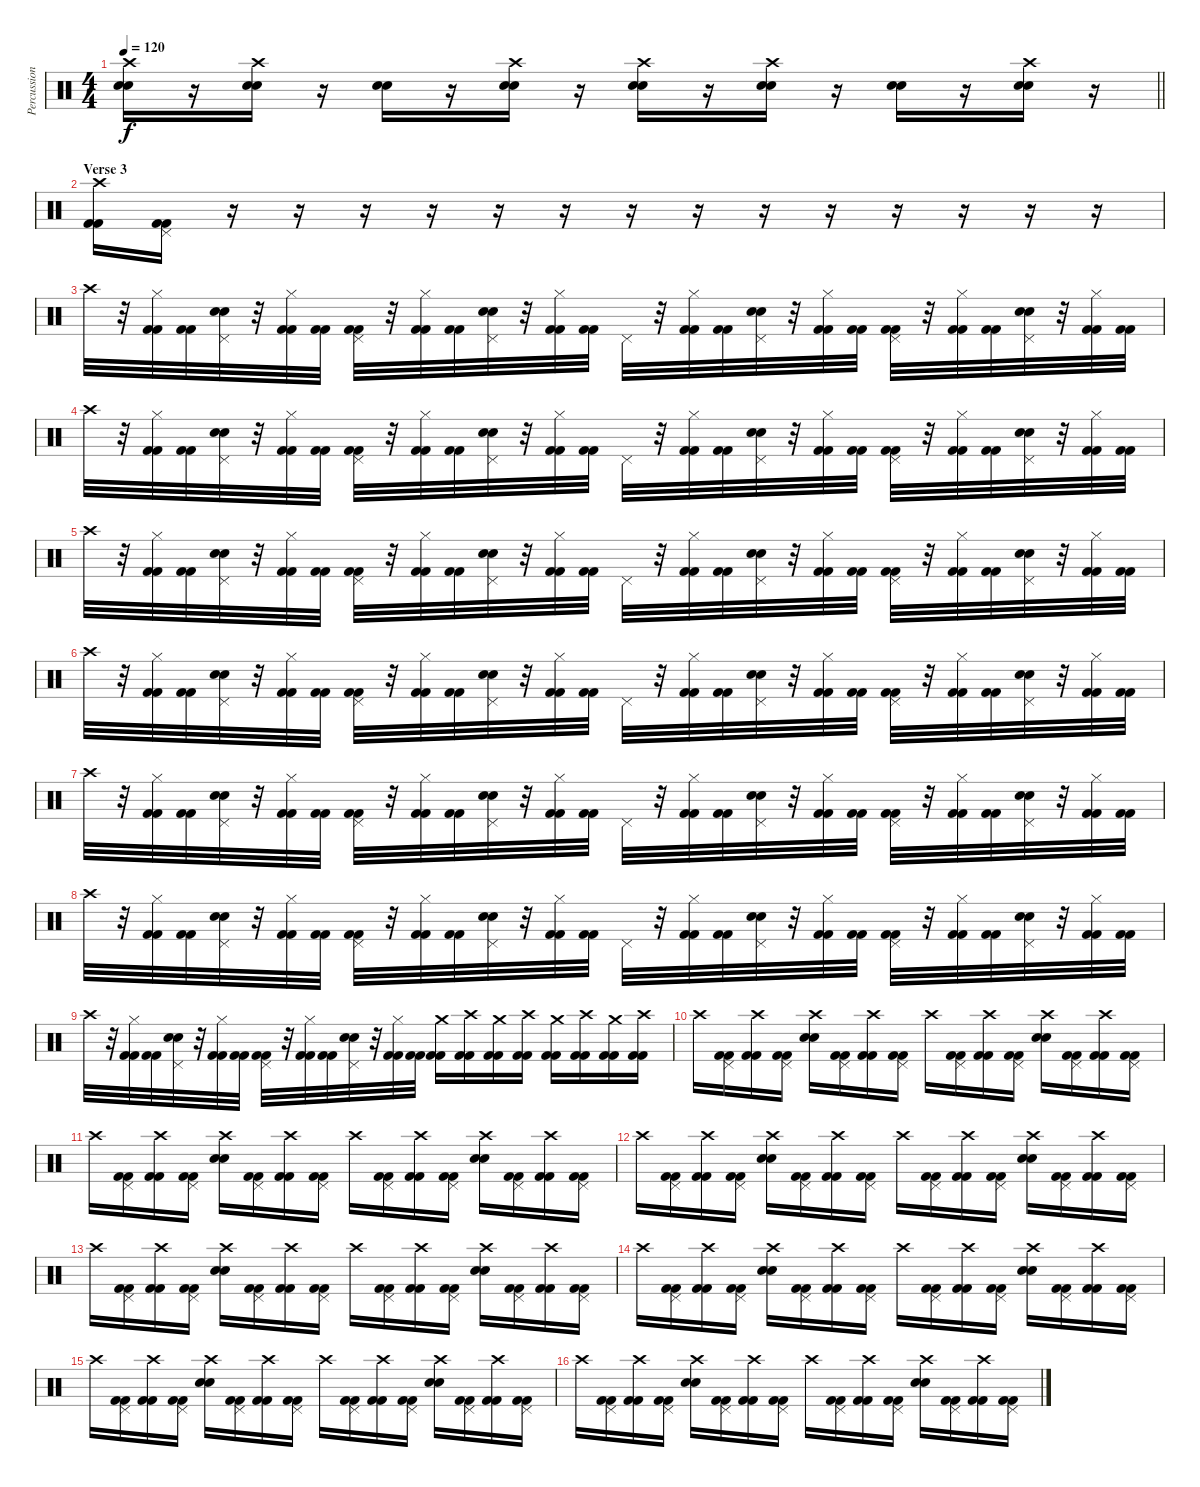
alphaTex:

\track ("Percussions" "Percussion") {instrument percussion}
\staff {score}
\articulation defaults
\ts (4 4)
\tempo 120
\clef neutral
\barLineRight lightlight
\ks c
("Crash high (hit)" "Snare (hit) 2" "Electric Snare (hit)").16{dy f} r.16 ("Crash high (hit)" "Snare (hit) 2" "Electric Snare (hit)").16 r.16 ("Snare (hit) 2" "Electric Snare (hit)").16 r.16 ("Crash high (hit)" "Snare (hit) 2" "Electric Snare (hit)").16 r.16 ("Crash high (hit)" "Snare (hit) 2" "Electric Snare (hit)").16 r.16 ("Crash high (hit)" "Snare (hit) 2" "Electric Snare (hit)").16 r.16 ("Snare (hit) 2" "Electric Snare (hit)").16 r.16 ("Crash high (hit)" "Snare (hit) 2" "Electric Snare (hit)").16 r.16 |
\section ("" "Verse 3")
("Crash high (hit)" "Kick (hit) 2" "Kick (hit) 2").16 ("Pedal Hi-Hat (hit)" "Kick (hit) 2" "Kick (hit) 2").16 r.16 r.16 r.16 r.16 r.16 r.16 r.16 r.16 r.16 r.16 r.16 r.16 r.16 r.16 |
"Crash high (hit)".32 r.32 ("Hi-Hat (closed)" "Kick (hit) 2" "Kick (hit) 2").32 ("Kick (hit) 2" "Kick (hit) 2").32 ("Pedal Hi-Hat (hit)" "Snare (hit) 2" "Electric Snare (hit)").32 r.32 ("Hi-Hat (closed)" "Kick (hit) 2" "Kick (hit) 2").32 ("Kick (hit) 2" "Kick (hit) 2").32 ("Pedal Hi-Hat (hit)" "Kick (hit) 2" "Kick (hit) 2").32 r.32 ("Hi-Hat (closed)" "Kick (hit) 2" "Kick (hit) 2").32 ("Kick (hit) 2" "Kick (hit) 2").32 ("Pedal Hi-Hat (hit)" "Snare (hit) 2" "Electric Snare (hit)").32 r.32 ("Hi-Hat (closed)" "Kick (hit) 2" "Kick (hit) 2").32 ("Kick (hit) 2" "Kick (hit) 2").32 "Pedal Hi-Hat (hit)".32 r.32 ("Hi-Hat (closed)" "Kick (hit) 2" "Kick (hit) 2").32 ("Kick (hit) 2" "Kick (hit) 2").32 ("Pedal Hi-Hat (hit)" "Snare (hit) 2" "Electric Snare (hit)").32 r.32 ("Hi-Hat (closed)" "Kick (hit) 2" "Kick (hit) 2").32 ("Kick (hit) 2" "Kick (hit) 2").32 ("Pedal Hi-Hat (hit)" "Kick (hit) 2" "Kick (hit) 2").32 r.32 ("Hi-Hat (closed)" "Kick (hit) 2" "Kick (hit) 2").32 ("Kick (hit) 2" "Kick (hit) 2").32 ("Pedal Hi-Hat (hit)" "Snare (hit) 2" "Electric Snare (hit)").32 r.32 ("Hi-Hat (closed)" "Kick (hit) 2" "Kick (hit) 2").32 ("Kick (hit) 2" "Kick (hit) 2").32 |
"Crash high (hit)".32 r.32 ("Hi-Hat (closed)" "Kick (hit) 2" "Kick (hit) 2").32 ("Kick (hit) 2" "Kick (hit) 2").32 ("Pedal Hi-Hat (hit)" "Snare (hit) 2" "Electric Snare (hit)").32 r.32 ("Hi-Hat (closed)" "Kick (hit) 2" "Kick (hit) 2").32 ("Kick (hit) 2" "Kick (hit) 2").32 ("Pedal Hi-Hat (hit)" "Kick (hit) 2" "Kick (hit) 2").32 r.32 ("Hi-Hat (closed)" "Kick (hit) 2" "Kick (hit) 2").32 ("Kick (hit) 2" "Kick (hit) 2").32 ("Pedal Hi-Hat (hit)" "Snare (hit) 2" "Electric Snare (hit)").32 r.32 ("Hi-Hat (closed)" "Kick (hit) 2" "Kick (hit) 2").32 ("Kick (hit) 2" "Kick (hit) 2").32 "Pedal Hi-Hat (hit)".32 r.32 ("Hi-Hat (closed)" "Kick (hit) 2" "Kick (hit) 2").32 ("Kick (hit) 2" "Kick (hit) 2").32 ("Pedal Hi-Hat (hit)" "Snare (hit) 2" "Electric Snare (hit)").32 r.32 ("Hi-Hat (closed)" "Kick (hit) 2" "Kick (hit) 2").32 ("Kick (hit) 2" "Kick (hit) 2").32 ("Pedal Hi-Hat (hit)" "Kick (hit) 2" "Kick (hit) 2").32 r.32 ("Hi-Hat (closed)" "Kick (hit) 2" "Kick (hit) 2").32 ("Kick (hit) 2" "Kick (hit) 2").32 ("Pedal Hi-Hat (hit)" "Snare (hit) 2" "Electric Snare (hit)").32 r.32 ("Hi-Hat (closed)" "Kick (hit) 2" "Kick (hit) 2").32 ("Kick (hit) 2" "Kick (hit) 2").32 |
"Crash high (hit)".32 r.32 ("Hi-Hat (closed)" "Kick (hit) 2" "Kick (hit) 2").32 ("Kick (hit) 2" "Kick (hit) 2").32 ("Pedal Hi-Hat (hit)" "Snare (hit) 2" "Electric Snare (hit)").32 r.32 ("Hi-Hat (closed)" "Kick (hit) 2" "Kick (hit) 2").32 ("Kick (hit) 2" "Kick (hit) 2").32 ("Pedal Hi-Hat (hit)" "Kick (hit) 2" "Kick (hit) 2").32 r.32 ("Hi-Hat (closed)" "Kick (hit) 2" "Kick (hit) 2").32 ("Kick (hit) 2" "Kick (hit) 2").32 ("Pedal Hi-Hat (hit)" "Snare (hit) 2" "Electric Snare (hit)").32 r.32 ("Hi-Hat (closed)" "Kick (hit) 2" "Kick (hit) 2").32 ("Kick (hit) 2" "Kick (hit) 2").32 "Pedal Hi-Hat (hit)".32 r.32 ("Hi-Hat (closed)" "Kick (hit) 2" "Kick (hit) 2").32 ("Kick (hit) 2" "Kick (hit) 2").32 ("Pedal Hi-Hat (hit)" "Snare (hit) 2" "Electric Snare (hit)").32 r.32 ("Hi-Hat (closed)" "Kick (hit) 2" "Kick (hit) 2").32 ("Kick (hit) 2" "Kick (hit) 2").32 ("Pedal Hi-Hat (hit)" "Kick (hit) 2" "Kick (hit) 2").32 r.32 ("Hi-Hat (closed)" "Kick (hit) 2" "Kick (hit) 2").32 ("Kick (hit) 2" "Kick (hit) 2").32 ("Pedal Hi-Hat (hit)" "Snare (hit) 2" "Electric Snare (hit)").32 r.32 ("Hi-Hat (closed)" "Kick (hit) 2" "Kick (hit) 2").32 ("Kick (hit) 2" "Kick (hit) 2").32 |
"Crash high (hit)".32 r.32 ("Hi-Hat (closed)" "Kick (hit) 2" "Kick (hit) 2").32 ("Kick (hit) 2" "Kick (hit) 2").32 ("Pedal Hi-Hat (hit)" "Snare (hit) 2" "Electric Snare (hit)").32 r.32 ("Hi-Hat (closed)" "Kick (hit) 2" "Kick (hit) 2").32 ("Kick (hit) 2" "Kick (hit) 2").32 ("Pedal Hi-Hat (hit)" "Kick (hit) 2" "Kick (hit) 2").32 r.32 ("Hi-Hat (closed)" "Kick (hit) 2" "Kick (hit) 2").32 ("Kick (hit) 2" "Kick (hit) 2").32 ("Pedal Hi-Hat (hit)" "Snare (hit) 2" "Electric Snare (hit)").32 r.32 ("Hi-Hat (closed)" "Kick (hit) 2" "Kick (hit) 2").32 ("Kick (hit) 2" "Kick (hit) 2").32 "Pedal Hi-Hat (hit)".32 r.32 ("Hi-Hat (closed)" "Kick (hit) 2" "Kick (hit) 2").32 ("Kick (hit) 2" "Kick (hit) 2").32 ("Pedal Hi-Hat (hit)" "Snare (hit) 2" "Electric Snare (hit)").32 r.32 ("Hi-Hat (closed)" "Kick (hit) 2" "Kick (hit) 2").32 ("Kick (hit) 2" "Kick (hit) 2").32 ("Pedal Hi-Hat (hit)" "Kick (hit) 2" "Kick (hit) 2").32 r.32 ("Hi-Hat (closed)" "Kick (hit) 2" "Kick (hit) 2").32 ("Kick (hit) 2" "Kick (hit) 2").32 ("Pedal Hi-Hat (hit)" "Snare (hit) 2" "Electric Snare (hit)").32 r.32 ("Hi-Hat (closed)" "Kick (hit) 2" "Kick (hit) 2").32 ("Kick (hit) 2" "Kick (hit) 2").32 |
"Crash high (hit)".32 r.32 ("Hi-Hat (closed)" "Kick (hit) 2" "Kick (hit) 2").32 ("Kick (hit) 2" "Kick (hit) 2").32 ("Pedal Hi-Hat (hit)" "Snare (hit) 2" "Electric Snare (hit)").32 r.32 ("Hi-Hat (closed)" "Kick (hit) 2" "Kick (hit) 2").32 ("Kick (hit) 2" "Kick (hit) 2").32 ("Pedal Hi-Hat (hit)" "Kick (hit) 2" "Kick (hit) 2").32 r.32 ("Hi-Hat (closed)" "Kick (hit) 2" "Kick (hit) 2").32 ("Kick (hit) 2" "Kick (hit) 2").32 ("Pedal Hi-Hat (hit)" "Snare (hit) 2" "Electric Snare (hit)").32 r.32 ("Hi-Hat (closed)" "Kick (hit) 2" "Kick (hit) 2").32 ("Kick (hit) 2" "Kick (hit) 2").32 "Pedal Hi-Hat (hit)".32 r.32 ("Hi-Hat (closed)" "Kick (hit) 2" "Kick (hit) 2").32 ("Kick (hit) 2" "Kick (hit) 2").32 ("Pedal Hi-Hat (hit)" "Snare (hit) 2" "Electric Snare (hit)").32 r.32 ("Hi-Hat (closed)" "Kick (hit) 2" "Kick (hit) 2").32 ("Kick (hit) 2" "Kick (hit) 2").32 ("Pedal Hi-Hat (hit)" "Kick (hit) 2" "Kick (hit) 2").32 r.32 ("Hi-Hat (closed)" "Kick (hit) 2" "Kick (hit) 2").32 ("Kick (hit) 2" "Kick (hit) 2").32 ("Pedal Hi-Hat (hit)" "Snare (hit) 2" "Electric Snare (hit)").32 r.32 ("Hi-Hat (closed)" "Kick (hit) 2" "Kick (hit) 2").32 ("Kick (hit) 2" "Kick (hit) 2").32 |
"Crash high (hit)".32 r.32 ("Hi-Hat (closed)" "Kick (hit) 2" "Kick (hit) 2").32 ("Kick (hit) 2" "Kick (hit) 2").32 ("Pedal Hi-Hat (hit)" "Snare (hit) 2" "Electric Snare (hit)").32 r.32 ("Hi-Hat (closed)" "Kick (hit) 2" "Kick (hit) 2").32 ("Kick (hit) 2" "Kick (hit) 2").32 ("Pedal Hi-Hat (hit)" "Kick (hit) 2" "Kick (hit) 2").32 r.32 ("Hi-Hat (closed)" "Kick (hit) 2" "Kick (hit) 2").32 ("Kick (hit) 2" "Kick (hit) 2").32 ("Pedal Hi-Hat (hit)" "Snare (hit) 2" "Electric Snare (hit)").32 r.32 ("Hi-Hat (closed)" "Kick (hit) 2" "Kick (hit) 2").32 ("Kick (hit) 2" "Kick (hit) 2").32 "Pedal Hi-Hat (hit)".32 r.32 ("Hi-Hat (closed)" "Kick (hit) 2" "Kick (hit) 2").32 ("Kick (hit) 2" "Kick (hit) 2").32 ("Pedal Hi-Hat (hit)" "Snare (hit) 2" "Electric Snare (hit)").32 r.32 ("Hi-Hat (closed)" "Kick (hit) 2" "Kick (hit) 2").32 ("Kick (hit) 2" "Kick (hit) 2").32 ("Pedal Hi-Hat (hit)" "Kick (hit) 2" "Kick (hit) 2").32 r.32 ("Hi-Hat (closed)" "Kick (hit) 2" "Kick (hit) 2").32 ("Kick (hit) 2" "Kick (hit) 2").32 ("Pedal Hi-Hat (hit)" "Snare (hit) 2" "Electric Snare (hit)").32 r.32 ("Hi-Hat (closed)" "Kick (hit) 2" "Kick (hit) 2").32 ("Kick (hit) 2" "Kick (hit) 2").32 |
"Crash high (hit)".32 r.32 ("Hi-Hat (closed)" "Kick (hit) 2" "Kick (hit) 2").32 ("Kick (hit) 2" "Kick (hit) 2").32 ("Pedal Hi-Hat (hit)" "Snare (hit) 2" "Electric Snare (hit)").32 r.32 ("Hi-Hat (closed)" "Kick (hit) 2" "Kick (hit) 2").32 ("Kick (hit) 2" "Kick (hit) 2").32 ("Pedal Hi-Hat (hit)" "Kick (hit) 2" "Kick (hit) 2").32 r.32 ("Hi-Hat (closed)" "Kick (hit) 2" "Kick (hit) 2").32 ("Kick (hit) 2" "Kick (hit) 2").32 ("Pedal Hi-Hat (hit)" "Snare (hit) 2" "Electric Snare (hit)").32 r.32 ("Hi-Hat (closed)" "Kick (hit) 2" "Kick (hit) 2").32 ("Kick (hit) 2" "Kick (hit) 2").32 ("Crash medium (hit)" "Kick (hit) 2" "Kick (hit) 2").16 ("Crash high (hit)" "Kick (hit) 2" "Kick (hit) 2").16 ("Crash medium (hit)" "Kick (hit) 2" "Kick (hit) 2").16 ("Crash high (hit)" "Kick (hit) 2" "Kick (hit) 2").16 ("Crash medium (hit)" "Kick (hit) 2" "Kick (hit) 2").16 ("Crash high (hit)" "Kick (hit) 2" "Kick (hit) 2").16 ("Crash medium (hit)" "Kick (hit) 2" "Kick (hit) 2").16 ("Crash high (hit)" "Kick (hit) 2" "Kick (hit) 2").16 |
"Crash high (hit)".16 ("Pedal Hi-Hat (hit)" "Kick (hit) 2" "Kick (hit) 2").16 ("Crash high (hit)" "Kick (hit) 2" "Kick (hit) 2").16 ("Pedal Hi-Hat (hit)" "Kick (hit) 2" "Kick (hit) 2").16 ("Crash high (hit)" "Snare (hit) 2" "Electric Snare (hit)").16 ("Pedal Hi-Hat (hit)" "Kick (hit) 2" "Kick (hit) 2").16 ("Crash high (hit)" "Kick (hit) 2" "Kick (hit) 2").16 ("Pedal Hi-Hat (hit)" "Kick (hit) 2" "Kick (hit) 2").16 "Crash high (hit)".16 ("Pedal Hi-Hat (hit)" "Kick (hit) 2" "Kick (hit) 2").16 ("Crash high (hit)" "Kick (hit) 2" "Kick (hit) 2").16 ("Pedal Hi-Hat (hit)" "Kick (hit) 2" "Kick (hit) 2").16 ("Crash high (hit)" "Snare (hit) 2" "Electric Snare (hit)").16 ("Pedal Hi-Hat (hit)" "Kick (hit) 2" "Kick (hit) 2").16 ("Crash high (hit)" "Kick (hit) 2" "Kick (hit) 2").16 ("Pedal Hi-Hat (hit)" "Kick (hit) 2" "Kick (hit) 2").16 |
"Crash high (hit)".16 ("Pedal Hi-Hat (hit)" "Kick (hit) 2" "Kick (hit) 2").16 ("Crash high (hit)" "Kick (hit) 2" "Kick (hit) 2").16 ("Pedal Hi-Hat (hit)" "Kick (hit) 2" "Kick (hit) 2").16 ("Crash high (hit)" "Snare (hit) 2" "Electric Snare (hit)").16 ("Pedal Hi-Hat (hit)" "Kick (hit) 2" "Kick (hit) 2").16 ("Crash high (hit)" "Kick (hit) 2" "Kick (hit) 2").16 ("Pedal Hi-Hat (hit)" "Kick (hit) 2" "Kick (hit) 2").16 "Crash high (hit)".16 ("Pedal Hi-Hat (hit)" "Kick (hit) 2" "Kick (hit) 2").16 ("Crash high (hit)" "Kick (hit) 2" "Kick (hit) 2").16 ("Pedal Hi-Hat (hit)" "Kick (hit) 2" "Kick (hit) 2").16 ("Crash high (hit)" "Snare (hit) 2" "Electric Snare (hit)").16 ("Pedal Hi-Hat (hit)" "Kick (hit) 2" "Kick (hit) 2").16 ("Crash high (hit)" "Kick (hit) 2" "Kick (hit) 2").16 ("Pedal Hi-Hat (hit)" "Kick (hit) 2" "Kick (hit) 2").16 |
"Crash high (hit)".16 ("Pedal Hi-Hat (hit)" "Kick (hit) 2" "Kick (hit) 2").16 ("Crash high (hit)" "Kick (hit) 2" "Kick (hit) 2").16 ("Pedal Hi-Hat (hit)" "Kick (hit) 2" "Kick (hit) 2").16 ("Crash high (hit)" "Snare (hit) 2" "Electric Snare (hit)").16 ("Pedal Hi-Hat (hit)" "Kick (hit) 2" "Kick (hit) 2").16 ("Crash high (hit)" "Kick (hit) 2" "Kick (hit) 2").16 ("Pedal Hi-Hat (hit)" "Kick (hit) 2" "Kick (hit) 2").16 "Crash high (hit)".16 ("Pedal Hi-Hat (hit)" "Kick (hit) 2" "Kick (hit) 2").16 ("Crash high (hit)" "Kick (hit) 2" "Kick (hit) 2").16 ("Pedal Hi-Hat (hit)" "Kick (hit) 2" "Kick (hit) 2").16 ("Crash high (hit)" "Snare (hit) 2" "Electric Snare (hit)").16 ("Pedal Hi-Hat (hit)" "Kick (hit) 2" "Kick (hit) 2").16 ("Crash high (hit)" "Kick (hit) 2" "Kick (hit) 2").16 ("Pedal Hi-Hat (hit)" "Kick (hit) 2" "Kick (hit) 2").16 |
"Crash high (hit)".16 ("Pedal Hi-Hat (hit)" "Kick (hit) 2" "Kick (hit) 2").16 ("Crash high (hit)" "Kick (hit) 2" "Kick (hit) 2").16 ("Pedal Hi-Hat (hit)" "Kick (hit) 2" "Kick (hit) 2").16 ("Crash high (hit)" "Snare (hit) 2" "Electric Snare (hit)").16 ("Pedal Hi-Hat (hit)" "Kick (hit) 2" "Kick (hit) 2").16 ("Crash high (hit)" "Kick (hit) 2" "Kick (hit) 2").16 ("Pedal Hi-Hat (hit)" "Kick (hit) 2" "Kick (hit) 2").16 "Crash high (hit)".16 ("Pedal Hi-Hat (hit)" "Kick (hit) 2" "Kick (hit) 2").16 ("Crash high (hit)" "Kick (hit) 2" "Kick (hit) 2").16 ("Pedal Hi-Hat (hit)" "Kick (hit) 2" "Kick (hit) 2").16 ("Crash high (hit)" "Snare (hit) 2" "Electric Snare (hit)").16 ("Pedal Hi-Hat (hit)" "Kick (hit) 2" "Kick (hit) 2").16 ("Crash high (hit)" "Kick (hit) 2" "Kick (hit) 2").16 ("Pedal Hi-Hat (hit)" "Kick (hit) 2" "Kick (hit) 2").16 |
"Crash high (hit)".16 ("Pedal Hi-Hat (hit)" "Kick (hit) 2" "Kick (hit) 2").16 ("Crash high (hit)" "Kick (hit) 2" "Kick (hit) 2").16 ("Pedal Hi-Hat (hit)" "Kick (hit) 2" "Kick (hit) 2").16 ("Crash high (hit)" "Snare (hit) 2" "Electric Snare (hit)").16 ("Pedal Hi-Hat (hit)" "Kick (hit) 2" "Kick (hit) 2").16 ("Crash high (hit)" "Kick (hit) 2" "Kick (hit) 2").16 ("Pedal Hi-Hat (hit)" "Kick (hit) 2" "Kick (hit) 2").16 "Crash high (hit)".16 ("Pedal Hi-Hat (hit)" "Kick (hit) 2" "Kick (hit) 2").16 ("Crash high (hit)" "Kick (hit) 2" "Kick (hit) 2").16 ("Pedal Hi-Hat (hit)" "Kick (hit) 2" "Kick (hit) 2").16 ("Crash high (hit)" "Snare (hit) 2" "Electric Snare (hit)").16 ("Pedal Hi-Hat (hit)" "Kick (hit) 2" "Kick (hit) 2").16 ("Crash high (hit)" "Kick (hit) 2" "Kick (hit) 2").16 ("Pedal Hi-Hat (hit)" "Kick (hit) 2" "Kick (hit) 2").16 |
"Crash high (hit)".16 ("Pedal Hi-Hat (hit)" "Kick (hit) 2" "Kick (hit) 2").16 ("Crash high (hit)" "Kick (hit) 2" "Kick (hit) 2").16 ("Pedal Hi-Hat (hit)" "Kick (hit) 2" "Kick (hit) 2").16 ("Crash high (hit)" "Snare (hit) 2" "Electric Snare (hit)").16 ("Pedal Hi-Hat (hit)" "Kick (hit) 2" "Kick (hit) 2").16 ("Crash high (hit)" "Kick (hit) 2" "Kick (hit) 2").16 ("Pedal Hi-Hat (hit)" "Kick (hit) 2" "Kick (hit) 2").16 "Crash high (hit)".16 ("Pedal Hi-Hat (hit)" "Kick (hit) 2" "Kick (hit) 2").16 ("Crash high (hit)" "Kick (hit) 2" "Kick (hit) 2").16 ("Pedal Hi-Hat (hit)" "Kick (hit) 2" "Kick (hit) 2").16 ("Crash high (hit)" "Snare (hit) 2" "Electric Snare (hit)").16 ("Pedal Hi-Hat (hit)" "Kick (hit) 2" "Kick (hit) 2").16 ("Crash high (hit)" "Kick (hit) 2" "Kick (hit) 2").16 ("Pedal Hi-Hat (hit)" "Kick (hit) 2" "Kick (hit) 2").16 |
"Crash high (hit)".16 ("Pedal Hi-Hat (hit)" "Kick (hit) 2" "Kick (hit) 2").16 ("Crash high (hit)" "Kick (hit) 2" "Kick (hit) 2").16 ("Pedal Hi-Hat (hit)" "Kick (hit) 2" "Kick (hit) 2").16 ("Crash high (hit)" "Snare (hit) 2" "Electric Snare (hit)").16 ("Pedal Hi-Hat (hit)" "Kick (hit) 2" "Kick (hit) 2").16 ("Crash high (hit)" "Kick (hit) 2" "Kick (hit) 2").16 ("Pedal Hi-Hat (hit)" "Kick (hit) 2" "Kick (hit) 2").16 "Crash high (hit)".16 ("Pedal Hi-Hat (hit)" "Kick (hit) 2" "Kick (hit) 2").16 ("Crash high (hit)" "Kick (hit) 2" "Kick (hit) 2").16 ("Pedal Hi-Hat (hit)" "Kick (hit) 2" "Kick (hit) 2").16 ("Crash high (hit)" "Snare (hit) 2" "Electric Snare (hit)").16 ("Pedal Hi-Hat (hit)" "Kick (hit) 2" "Kick (hit) 2").16 ("Crash high (hit)" "Kick (hit) 2" "Kick (hit) 2").16 ("Pedal Hi-Hat (hit)" "Kick (hit) 2" "Kick (hit) 2").16
